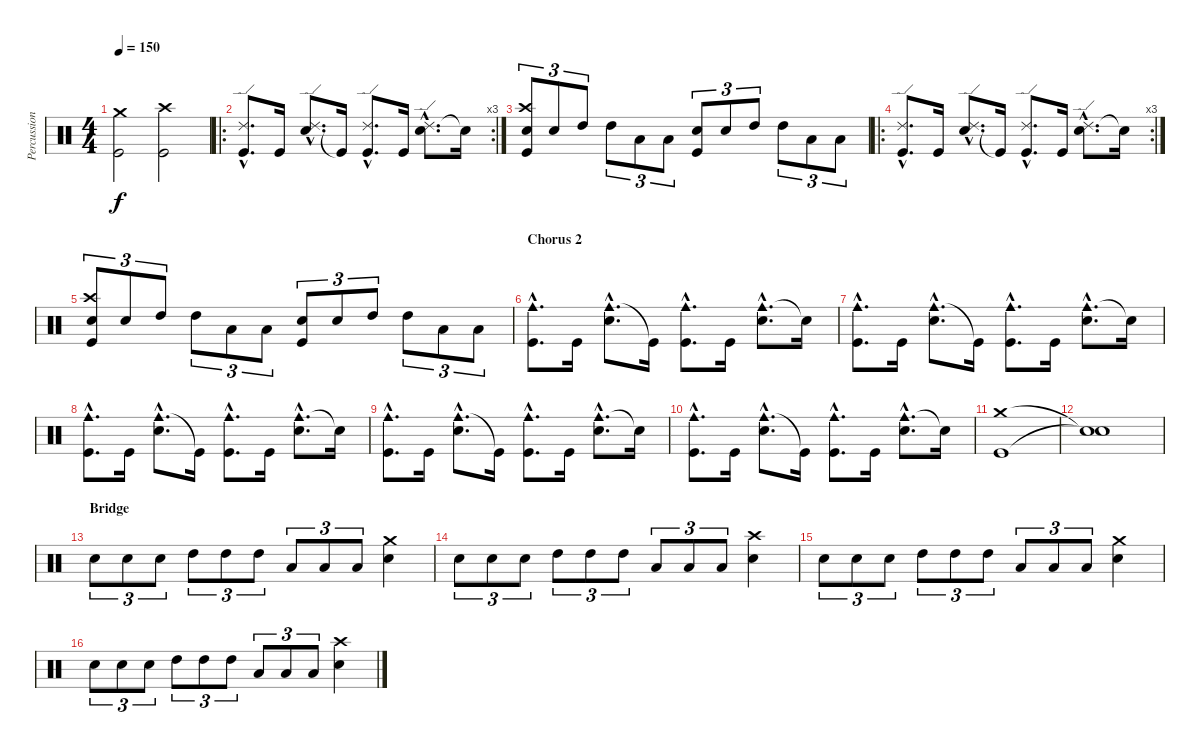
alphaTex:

\track ("Percussion" "Percussion") {instrument percussion}
\staff {score}
\articulation defaults
\ts (4 4)
\tempo 150
\clef neutral
\ks c
("Crash medium (hit)" "Kick (hit)").2{dy f} ("Crash high (hit)" "Kick (hit)").2 |
\ro
\rc 3
("Ride (edge) 2"{hac} "Kick (hit)"{hac}).8{d} "Kick (hit)".16 ("Ride (edge) 2"{hac} "Snare (hit) 2"{hac}).8{d} "Kick (hit)"{t}.16 ("Ride (edge) 2"{hac} "Kick (hit)"{hac}).8{d} "Kick (hit)".16 ("Ride (edge) 2"{hac} "Snare (hit) 2"{hac}).8{d} "Snare (hit)"{t}.16 |
("Crash high (hit)" "Snare (hit) 2" "Kick (hit)").8{tu (3 2)} "Snare (hit) 2".8{tu (3 2)} "High Tom (hit)".8{tu (3 2)} "High Tom (hit)".8{tu (3 2)} "Low Floor Tom (hit)".8{tu (3 2)} "Low Floor Tom (hit)".8{tu (3 2)} ("Snare (hit) 2" "Kick (hit)").8{tu (3 2)} "Snare (hit) 2".8{tu (3 2)} "High Tom (hit)".8{tu (3 2)} "High Tom (hit)".8{tu (3 2)} "Low Floor Tom (hit)".8{tu (3 2)} "Low Floor Tom (hit)".8{tu (3 2)} |
\ro
\rc 3
("Ride (edge) 2"{hac} "Kick (hit)"{hac}).8{d} "Kick (hit)".16 ("Ride (edge) 2"{hac} "Snare (hit) 2"{hac}).8{d} "Kick (hit)"{t}.16 ("Ride (edge) 2"{hac} "Kick (hit)"{hac}).8{d} "Kick (hit)".16 ("Ride (edge) 2"{hac} "Snare (hit) 2"{hac}).8{d} "Snare (hit)"{t}.16 |
("Crash high (hit)" "Snare (hit) 2" "Kick (hit)").8{tu (3 2)} "Snare (hit) 2".8{tu (3 2)} "High Tom (hit)".8{tu (3 2)} "High Tom (hit)".8{tu (3 2)} "Low Floor Tom (hit)".8{tu (3 2)} "Low Floor Tom (hit)".8{tu (3 2)} ("Snare (hit) 2" "Kick (hit)").8{tu (3 2)} "Snare (hit) 2".8{tu (3 2)} "High Tom (hit)".8{tu (3 2)} "High Tom (hit)".8{tu (3 2)} "Low Floor Tom (hit)".8{tu (3 2)} "Low Floor Tom (hit)".8{tu (3 2)} |
\section ("" "Chorus 2")
("Cowbell medium (hit)"{hac} "Kick (hit)"{hac}).8{d} "Kick (hit)".16 ("Cowbell medium (hit)"{hac} "Snare (hit) 2"{hac}).8{d} "Kick (hit)"{t}.16 ("Cowbell medium (hit)"{hac} "Kick (hit)"{hac}).8{d} "Kick (hit)".16 ("Cowbell medium (hit)"{hac} "Snare (hit) 2"{hac}).8{d} "Snare (hit)"{t}.16 |
("Cowbell medium (hit)"{hac} "Kick (hit)"{hac}).8{d} "Kick (hit)".16 ("Cowbell medium (hit)"{hac} "Snare (hit) 2"{hac}).8{d} "Kick (hit)"{t}.16 ("Cowbell medium (hit)"{hac} "Kick (hit)"{hac}).8{d} "Kick (hit)".16 ("Cowbell medium (hit)"{hac} "Snare (hit) 2"{hac}).8{d} "Snare (hit)"{t}.16 |
("Cowbell medium (hit)"{hac} "Kick (hit)"{hac}).8{d} "Kick (hit)".16 ("Cowbell medium (hit)"{hac} "Snare (hit) 2"{hac}).8{d} "Kick (hit)"{t}.16 ("Cowbell medium (hit)"{hac} "Kick (hit)"{hac}).8{d} "Kick (hit)".16 ("Cowbell medium (hit)"{hac} "Snare (hit) 2"{hac}).8{d} "Snare (hit)"{t}.16 |
("Cowbell medium (hit)"{hac} "Kick (hit)"{hac}).8{d} "Kick (hit)".16 ("Cowbell medium (hit)"{hac} "Snare (hit) 2"{hac}).8{d} "Kick (hit)"{t}.16 ("Cowbell medium (hit)"{hac} "Kick (hit)"{hac}).8{d} "Kick (hit)".16 ("Cowbell medium (hit)"{hac} "Snare (hit) 2"{hac}).8{d} "Snare (hit)"{t}.16 |
("Cowbell medium (hit)"{hac} "Kick (hit)"{hac}).8{d} "Kick (hit)".16 ("Cowbell medium (hit)"{hac} "Snare (hit) 2"{hac}).8{d} "Kick (hit)"{t}.16 ("Cowbell medium (hit)"{hac} "Kick (hit)"{hac}).8{d} "Kick (hit)".16 ("Cowbell medium (hit)"{hac} "Snare (hit) 2"{hac}).8{d} "Snare (hit)"{t}.16 |
("Crash medium (hit)" "Kick (hit)").1 |
("Snare (hit)"{t} "Snare (hit)"{t}).1 |
\section ("" "Bridge")
"Snare (hit) 2".8{tu (3 2)} "Snare (hit) 2".8{tu (3 2)} "Snare (hit) 2".8{tu (3 2)} "High Tom (hit)".8{tu (3 2)} "High Tom (hit)".8{tu (3 2)} "High Tom (hit)".8{tu (3 2)} "Low Floor Tom (hit)".8{tu (3 2)} "Low Floor Tom (hit)".8{tu (3 2)} "Low Floor Tom (hit)".8{tu (3 2)} ("Crash medium (hit)" "Snare (hit) 2").4 |
"Snare (hit) 2".8{tu (3 2)} "Snare (hit) 2".8{tu (3 2)} "Snare (hit) 2".8{tu (3 2)} "High Tom (hit)".8{tu (3 2)} "High Tom (hit)".8{tu (3 2)} "High Tom (hit)".8{tu (3 2)} "Low Floor Tom (hit)".8{tu (3 2)} "Low Floor Tom (hit)".8{tu (3 2)} "Low Floor Tom (hit)".8{tu (3 2)} ("Crash high (hit)" "Snare (hit) 2").4 |
"Snare (hit) 2".8{tu (3 2)} "Snare (hit) 2".8{tu (3 2)} "Snare (hit) 2".8{tu (3 2)} "High Tom (hit)".8{tu (3 2)} "High Tom (hit)".8{tu (3 2)} "High Tom (hit)".8{tu (3 2)} "Low Floor Tom (hit)".8{tu (3 2)} "Low Floor Tom (hit)".8{tu (3 2)} "Low Floor Tom (hit)".8{tu (3 2)} ("Crash medium (hit)" "Snare (hit) 2").4 |
"Snare (hit) 2".8{tu (3 2)} "Snare (hit) 2".8{tu (3 2)} "Snare (hit) 2".8{tu (3 2)} "High Tom (hit)".8{tu (3 2)} "High Tom (hit)".8{tu (3 2)} "High Tom (hit)".8{tu (3 2)} "Low Floor Tom (hit)".8{tu (3 2)} "Low Floor Tom (hit)".8{tu (3 2)} "Low Floor Tom (hit)".8{tu (3 2)} ("Crash high (hit)" "Snare (hit) 2").4
